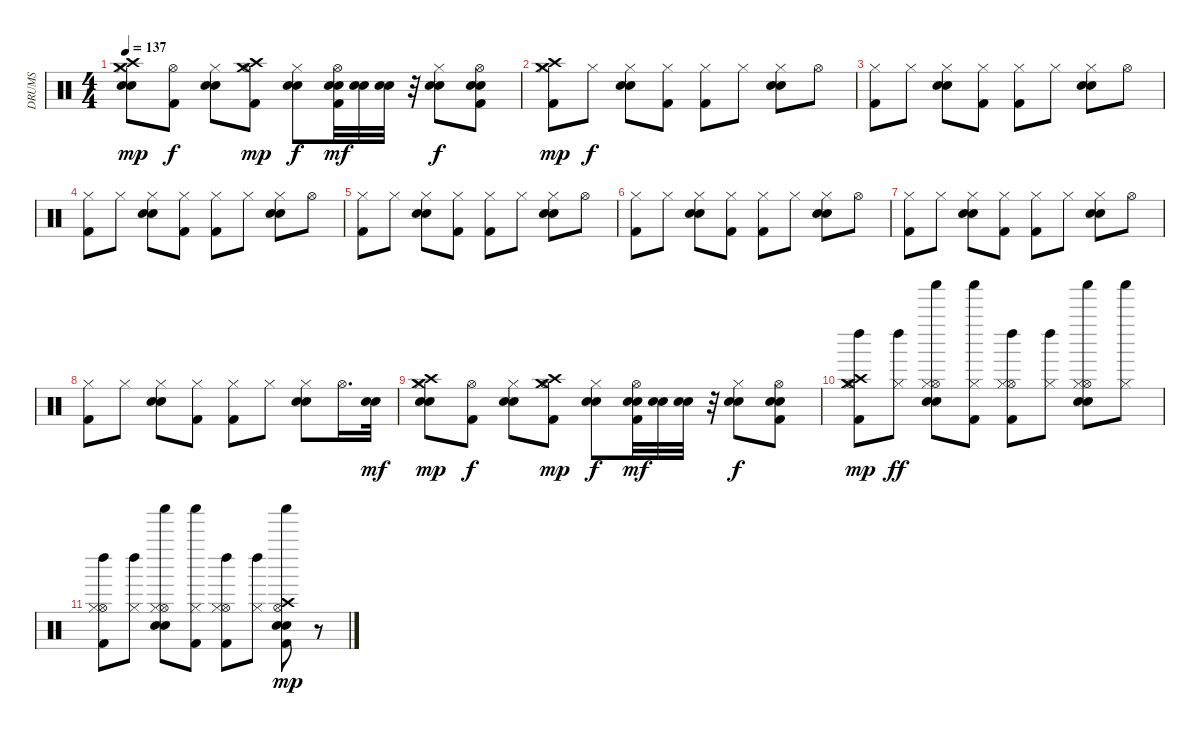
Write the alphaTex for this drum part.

\track ("DRUMS" "DRUMS") {instrument percussion}
\staff {score}
\articulation defaults
\ts (4 4)
\tempo 137
\clef neutral
\ks c
("Snare (hit) 2" "Electric Snare (hit)" "Hi-Hat (closed)" "Crash high (hit)" "Crash medium (hit)").8{dy mp} ("Hi-Hat (open)" "Kick (hit) 2").8{dy f} ("Snare (hit) 2" "Electric Snare (hit)" "Hi-Hat (closed)").8 ("Hi-Hat (open)" "Kick (hit) 2" "Crash high (hit)" "Crash medium (hit)").8{dy mp} ("Snare (hit) 2" "Electric Snare (hit)" "Hi-Hat (closed)").8{dy f} ("Hi-Hat (open)" "Electric Snare (hit)" "Snare (hit) 2" "Kick (hit) 2").32{dy mf} ("Electric Snare (hit)" "Snare (hit) 2").32 ("Snare (hit) 2" "Electric Snare (hit)").32 r.32 ("Snare (hit) 2" "Electric Snare (hit)" "Hi-Hat (closed)").8{dy f} ("Snare (hit) 2" "Electric Snare (hit)" "Hi-Hat (open)" "Kick (hit) 2").8 |
("Crash high (hit)" "Crash medium (hit)" "Hi-Hat (closed)" "Kick (hit) 2").8{dy mp} "Hi-Hat (closed)".8{dy f} ("Hi-Hat (closed)" "Electric Snare (hit)" "Snare (hit) 2").8 ("Hi-Hat (closed)" "Kick (hit) 2").8 ("Hi-Hat (closed)" "Kick (hit) 2").8 "Hi-Hat (closed)".8 ("Hi-Hat (closed)" "Electric Snare (hit)" "Snare (hit) 2").8 "Hi-Hat (open)".8 |
("Hi-Hat (closed)" "Kick (hit) 2").8 "Hi-Hat (closed)".8 ("Hi-Hat (closed)" "Electric Snare (hit)" "Snare (hit) 2").8 ("Hi-Hat (closed)" "Kick (hit) 2").8 ("Hi-Hat (closed)" "Kick (hit) 2").8 "Hi-Hat (closed)".8 ("Hi-Hat (closed)" "Electric Snare (hit)" "Snare (hit) 2").8 "Hi-Hat (open)".8 |
("Hi-Hat (closed)" "Kick (hit) 2").8 "Hi-Hat (closed)".8 ("Hi-Hat (closed)" "Electric Snare (hit)" "Snare (hit) 2").8 ("Hi-Hat (closed)" "Kick (hit) 2").8 ("Hi-Hat (closed)" "Kick (hit) 2").8 "Hi-Hat (closed)".8 ("Hi-Hat (closed)" "Electric Snare (hit)" "Snare (hit) 2").8 "Hi-Hat (open)".8 |
("Hi-Hat (closed)" "Kick (hit) 2").8 "Hi-Hat (closed)".8 ("Hi-Hat (closed)" "Electric Snare (hit)" "Snare (hit) 2").8 ("Hi-Hat (closed)" "Kick (hit) 2").8 ("Hi-Hat (closed)" "Kick (hit) 2").8 "Hi-Hat (closed)".8 ("Hi-Hat (closed)" "Electric Snare (hit)" "Snare (hit) 2").8 "Hi-Hat (open)".8 |
("Hi-Hat (closed)" "Kick (hit) 2").8 "Hi-Hat (closed)".8 ("Hi-Hat (closed)" "Electric Snare (hit)" "Snare (hit) 2").8 ("Hi-Hat (closed)" "Kick (hit) 2").8 ("Hi-Hat (closed)" "Kick (hit) 2").8 "Hi-Hat (closed)".8 ("Hi-Hat (closed)" "Electric Snare (hit)" "Snare (hit) 2").8 "Hi-Hat (open)".8 |
("Hi-Hat (closed)" "Kick (hit) 2").8 "Hi-Hat (closed)".8 ("Hi-Hat (closed)" "Electric Snare (hit)" "Snare (hit) 2").8 ("Hi-Hat (closed)" "Kick (hit) 2").8 ("Hi-Hat (closed)" "Kick (hit) 2").8 "Hi-Hat (closed)".8 ("Hi-Hat (closed)" "Electric Snare (hit)" "Snare (hit) 2").8 "Hi-Hat (open)".8 |
("Hi-Hat (closed)" "Kick (hit) 2").8 "Hi-Hat (closed)".8 ("Hi-Hat (closed)" "Electric Snare (hit)" "Snare (hit) 2").8 ("Hi-Hat (closed)" "Kick (hit) 2").8 ("Hi-Hat (closed)" "Kick (hit) 2").8 "Hi-Hat (closed)".8 ("Hi-Hat (closed)" "Electric Snare (hit)" "Snare (hit) 2").8 "Hi-Hat (open)".16{d} ("Snare (hit) 2" "Electric Snare (hit)").32{dy mf} |
("Snare (hit) 2" "Electric Snare (hit)" "Hi-Hat (closed)" "Crash high (hit)" "Crash medium (hit)").8{dy mp} ("Hi-Hat (open)" "Kick (hit) 2").8{dy f} ("Snare (hit) 2" "Electric Snare (hit)" "Hi-Hat (closed)").8 ("Hi-Hat (open)" "Kick (hit) 2" "Crash high (hit)" "Crash medium (hit)").8{dy mp} ("Snare (hit) 2" "Electric Snare (hit)" "Hi-Hat (closed)").8{dy f} ("Hi-Hat (open)" "Electric Snare (hit)" "Snare (hit) 2" "Kick (hit) 2").32{dy mf} ("Electric Snare (hit)" "Snare (hit) 2").32 ("Snare (hit) 2" "Electric Snare (hit)").32 r.32 ("Snare (hit) 2" "Electric Snare (hit)" "Hi-Hat (closed)").8{dy f} ("Snare (hit) 2" "Electric Snare (hit)" "Hi-Hat (open)" "Kick (hit) 2").8 |
("Left Maraca (hit)" "Crash high (hit)" "Crash medium (hit)" "Hi-Hat (open)" "Hi-Hat (closed)" "Kick (hit) 2").8{dy mp} ("Left Maraca (hit)" "Hi-Hat (closed)").8{dy ff} ("Shaker (hit)" "Hi-Hat (open)" "Hi-Hat (closed)" "Electric Snare (hit)" "Snare (hit) 2").8 ("Shaker (hit)" "Hi-Hat (closed)" "Kick (hit) 2").8 ("Left Maraca (hit)" "Hi-Hat (open)" "Hi-Hat (closed)" "Kick (hit) 2").8 ("Left Maraca (hit)" "Hi-Hat (closed)").8 ("Shaker (hit)" "Hi-Hat (open)" "Hi-Hat (closed)" "Electric Snare (hit)" "Snare (hit) 2").8 ("Shaker (hit)" "Hi-Hat (closed)").8 |
("Left Maraca (hit)" "Hi-Hat (open)" "Hi-Hat (closed)" "Kick (hit) 2").8 ("Left Maraca (hit)" "Hi-Hat (closed)").8 ("Shaker (hit)" "Hi-Hat (open)" "Hi-Hat (closed)" "Electric Snare (hit)" "Snare (hit) 2").8 ("Shaker (hit)" "Hi-Hat (closed)" "Kick (hit) 2").8 ("Left Maraca (hit)" "Hi-Hat (open)" "Hi-Hat (closed)" "Kick (hit) 2").8 ("Left Maraca (hit)" "Hi-Hat (closed)").8 ("Shaker (hit)" "Hi-Hat (open)" "Electric Snare (hit)" "Snare (hit) 2" "Kick (hit) 2" "Crash high (hit)").8{dy mp} r.8
